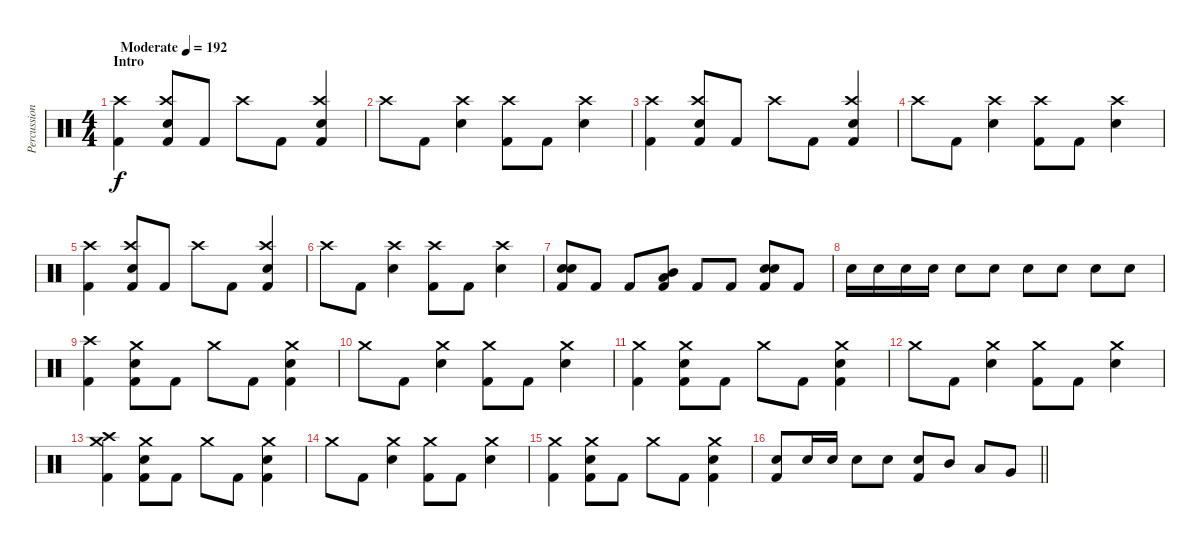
\track ("Percussion" "Percussion") {instrument percussion}
\staff {score}
\articulation defaults
\ts (4 4)
\section ("" "Intro")
\tempo (192 "Moderate")
\clef neutral
\ks aminor
("Kick (hit) 2" "Crash high (hit)").4{dy f} ("Kick (hit) 2" "Snare (hit) 2" "Crash high (hit)").8 "Kick (hit) 2".8 "Crash high (hit)".8 "Kick (hit) 2".8 ("Kick (hit) 2" "Snare (hit) 2" "Crash high (hit)").4 |
"Crash high (hit)".8 "Kick (hit) 2".8 ("Snare (hit) 2" "Crash high (hit)").4 ("Kick (hit) 2" "Crash high (hit)").8 "Kick (hit) 2".8 ("Snare (hit) 2" "Crash high (hit)").4 |
("Kick (hit) 2" "Crash high (hit)").4 ("Kick (hit) 2" "Snare (hit) 2" "Crash high (hit)").8 "Kick (hit) 2".8 "Crash high (hit)".8 "Kick (hit) 2".8 ("Kick (hit) 2" "Snare (hit) 2" "Crash high (hit)").4 |
"Crash high (hit)".8 "Kick (hit) 2".8 ("Snare (hit) 2" "Crash high (hit)").4 ("Kick (hit) 2" "Crash high (hit)").8 "Kick (hit) 2".8 ("Snare (hit) 2" "Crash high (hit)").4 |
("Kick (hit) 2" "Crash high (hit)").4 ("Kick (hit) 2" "Snare (hit) 2" "Crash high (hit)").8 "Kick (hit) 2".8 "Crash high (hit)".8 "Kick (hit) 2".8 ("Kick (hit) 2" "Snare (hit) 2" "Crash high (hit)").4 |
"Crash high (hit)".8 "Kick (hit) 2".8 ("Snare (hit) 2" "Crash high (hit)").4 ("Kick (hit) 2" "Crash high (hit)").8 "Kick (hit) 2".8 ("Snare (hit) 2" "Crash high (hit)").4 |
("Kick (hit) 2" "Snare (hit) 2" "Snare (hit) 2").8 "Kick (hit) 2".8 "Kick (hit) 2".8 ("Kick (hit) 2" "Mid Tom (hit)" "Low Floor Tom (hit)").8 "Kick (hit) 2".8 "Kick (hit) 2".8 ("Kick (hit) 2" "Snare (hit) 2" "Snare (hit) 2").8 "Kick (hit) 2".8 |
"Snare (hit) 2".16 "Snare (hit) 2".16 "Snare (hit) 2".16 "Snare (hit) 2".16 "Snare (hit) 2".8 "Snare (hit) 2".8 "Snare (hit) 2".8 "Snare (hit) 2".8 "Snare (hit) 2".8 "Snare (hit) 2".8 |
("Kick (hit) 2" "Crash high (hit)").4 ("Kick (hit) 2" "Snare (hit) 2" "Crash medium (hit)").8 "Kick (hit) 2".8 "Crash medium (hit)".8 "Kick (hit) 2".8 ("Kick (hit) 2" "Snare (hit) 2" "Crash medium (hit)").4 |
"Crash medium (hit)".8 "Kick (hit) 2".8 ("Snare (hit) 2" "Crash medium (hit)").4 ("Kick (hit) 2" "Crash medium (hit)").8 "Kick (hit) 2".8 ("Snare (hit) 2" "Crash medium (hit)").4 |
("Kick (hit) 2" "Crash medium (hit)").4 ("Kick (hit) 2" "Snare (hit) 2" "Crash medium (hit)").8 "Kick (hit) 2".8 "Crash medium (hit)".8 "Kick (hit) 2".8 ("Kick (hit) 2" "Snare (hit) 2" "Crash medium (hit)").4 |
"Crash medium (hit)".8 "Kick (hit) 2".8 ("Snare (hit) 2" "Crash medium (hit)").4 ("Kick (hit) 2" "Crash medium (hit)").8 "Kick (hit) 2".8 ("Snare (hit) 2" "Crash medium (hit)").4 |
("Kick (hit) 2" "Crash high (hit)" "Crash medium (hit)").4 ("Kick (hit) 2" "Snare (hit) 2" "Crash medium (hit)").8 "Kick (hit) 2".8 "Crash medium (hit)".8 "Kick (hit) 2".8 ("Kick (hit) 2" "Snare (hit) 2" "Crash medium (hit)").4 |
"Crash medium (hit)".8 "Kick (hit) 2".8 ("Snare (hit) 2" "Crash medium (hit)").4 ("Kick (hit) 2" "Crash medium (hit)").8 "Kick (hit) 2".8 ("Snare (hit) 2" "Crash medium (hit)").4 |
("Kick (hit) 2" "Crash medium (hit)").4 ("Kick (hit) 2" "Snare (hit) 2" "Crash medium (hit)").8 "Kick (hit) 2".8 "Crash medium (hit)".8 "Kick (hit) 2".8 ("Kick (hit) 2" "Snare (hit) 2" "Crash medium (hit)").4 |
\barLineRight lightlight
("Kick (hit) 2" "Snare (hit) 2").8 "Snare (hit) 2".16 "Snare (hit) 2".16 "Snare (hit) 2".8 "Snare (hit) 2".8 ("Kick (hit) 2" "Snare (hit) 2").8 "Mid Tom (hit)".8 "Low Tom (hit)".8 "Very Low Tom (hit)".8
